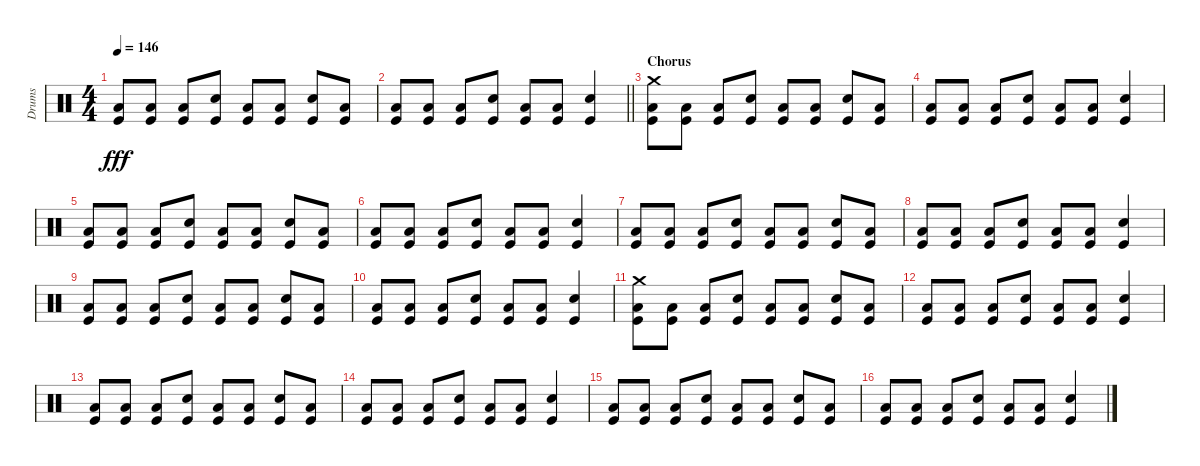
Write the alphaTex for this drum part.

\track ("Drums" "Drums") {instrument percussion}
\staff {score}
\articulation defaults
\ts (4 4)
\tempo 146
\clef neutral
\ks c
("Low Floor Tom (hit)" "Kick (hit)").8{dy fff} ("Low Floor Tom (hit)" "Kick (hit)").8 ("Low Floor Tom (hit)" "Kick (hit)").8 ("Electric Snare (hit)" "Kick (hit)").8 ("Low Floor Tom (hit)" "Kick (hit)").8 ("Low Floor Tom (hit)" "Kick (hit)").8 ("Electric Snare (hit)" "Kick (hit)").8 ("Low Floor Tom (hit)" "Kick (hit)").8 |
\barLineRight lightlight
("Low Floor Tom (hit)" "Kick (hit)").8 ("Low Floor Tom (hit)" "Kick (hit)").8 ("Low Floor Tom (hit)" "Kick (hit)").8 ("Electric Snare (hit)" "Kick (hit)").8 ("Low Floor Tom (hit)" "Kick (hit)").8 ("Low Floor Tom (hit)" "Kick (hit)").8 ("Electric Snare (hit)" "Kick (hit)").4 |
\section ("" "Chorus")
("Crash medium (hit)" "Low Floor Tom (hit)" "Kick (hit)").8 ("Low Floor Tom (hit)" "Kick (hit)").8 ("Low Floor Tom (hit)" "Kick (hit)").8 ("Electric Snare (hit)" "Kick (hit)").8 ("Low Floor Tom (hit)" "Kick (hit)").8 ("Low Floor Tom (hit)" "Kick (hit)").8 ("Electric Snare (hit)" "Kick (hit)").8 ("Low Floor Tom (hit)" "Kick (hit)").8 |
("Low Floor Tom (hit)" "Kick (hit)").8 ("Low Floor Tom (hit)" "Kick (hit)").8 ("Low Floor Tom (hit)" "Kick (hit)").8 ("Electric Snare (hit)" "Kick (hit)").8 ("Low Floor Tom (hit)" "Kick (hit)").8 ("Low Floor Tom (hit)" "Kick (hit)").8 ("Electric Snare (hit)" "Kick (hit)").4 |
("Low Floor Tom (hit)" "Kick (hit)").8 ("Low Floor Tom (hit)" "Kick (hit)").8 ("Low Floor Tom (hit)" "Kick (hit)").8 ("Electric Snare (hit)" "Kick (hit)").8 ("Low Floor Tom (hit)" "Kick (hit)").8 ("Low Floor Tom (hit)" "Kick (hit)").8 ("Electric Snare (hit)" "Kick (hit)").8 ("Low Floor Tom (hit)" "Kick (hit)").8 |
("Low Floor Tom (hit)" "Kick (hit)").8 ("Low Floor Tom (hit)" "Kick (hit)").8 ("Low Floor Tom (hit)" "Kick (hit)").8 ("Electric Snare (hit)" "Kick (hit)").8 ("Low Floor Tom (hit)" "Kick (hit)").8 ("Low Floor Tom (hit)" "Kick (hit)").8 ("Electric Snare (hit)" "Kick (hit)").4 |
("Low Floor Tom (hit)" "Kick (hit)").8 ("Low Floor Tom (hit)" "Kick (hit)").8 ("Low Floor Tom (hit)" "Kick (hit)").8 ("Electric Snare (hit)" "Kick (hit)").8 ("Low Floor Tom (hit)" "Kick (hit)").8 ("Low Floor Tom (hit)" "Kick (hit)").8 ("Electric Snare (hit)" "Kick (hit)").8 ("Low Floor Tom (hit)" "Kick (hit)").8 |
("Low Floor Tom (hit)" "Kick (hit)").8 ("Low Floor Tom (hit)" "Kick (hit)").8 ("Low Floor Tom (hit)" "Kick (hit)").8 ("Electric Snare (hit)" "Kick (hit)").8 ("Low Floor Tom (hit)" "Kick (hit)").8 ("Low Floor Tom (hit)" "Kick (hit)").8 ("Electric Snare (hit)" "Kick (hit)").4 |
("Low Floor Tom (hit)" "Kick (hit)").8 ("Low Floor Tom (hit)" "Kick (hit)").8 ("Low Floor Tom (hit)" "Kick (hit)").8 ("Electric Snare (hit)" "Kick (hit)").8 ("Low Floor Tom (hit)" "Kick (hit)").8 ("Low Floor Tom (hit)" "Kick (hit)").8 ("Electric Snare (hit)" "Kick (hit)").8 ("Low Floor Tom (hit)" "Kick (hit)").8 |
("Low Floor Tom (hit)" "Kick (hit)").8 ("Low Floor Tom (hit)" "Kick (hit)").8 ("Low Floor Tom (hit)" "Kick (hit)").8 ("Electric Snare (hit)" "Kick (hit)").8 ("Low Floor Tom (hit)" "Kick (hit)").8 ("Low Floor Tom (hit)" "Kick (hit)").8 ("Electric Snare (hit)" "Kick (hit)").4 |
("Crash medium (hit)" "Low Floor Tom (hit)" "Kick (hit)").8 ("Low Floor Tom (hit)" "Kick (hit)").8 ("Low Floor Tom (hit)" "Kick (hit)").8 ("Electric Snare (hit)" "Kick (hit)").8 ("Low Floor Tom (hit)" "Kick (hit)").8 ("Low Floor Tom (hit)" "Kick (hit)").8 ("Electric Snare (hit)" "Kick (hit)").8 ("Low Floor Tom (hit)" "Kick (hit)").8 |
("Low Floor Tom (hit)" "Kick (hit)").8 ("Low Floor Tom (hit)" "Kick (hit)").8 ("Low Floor Tom (hit)" "Kick (hit)").8 ("Electric Snare (hit)" "Kick (hit)").8 ("Low Floor Tom (hit)" "Kick (hit)").8 ("Low Floor Tom (hit)" "Kick (hit)").8 ("Electric Snare (hit)" "Kick (hit)").4 |
("Low Floor Tom (hit)" "Kick (hit)").8 ("Low Floor Tom (hit)" "Kick (hit)").8 ("Low Floor Tom (hit)" "Kick (hit)").8 ("Electric Snare (hit)" "Kick (hit)").8 ("Low Floor Tom (hit)" "Kick (hit)").8 ("Low Floor Tom (hit)" "Kick (hit)").8 ("Electric Snare (hit)" "Kick (hit)").8 ("Low Floor Tom (hit)" "Kick (hit)").8 |
("Low Floor Tom (hit)" "Kick (hit)").8 ("Low Floor Tom (hit)" "Kick (hit)").8 ("Low Floor Tom (hit)" "Kick (hit)").8 ("Electric Snare (hit)" "Kick (hit)").8 ("Low Floor Tom (hit)" "Kick (hit)").8 ("Low Floor Tom (hit)" "Kick (hit)").8 ("Electric Snare (hit)" "Kick (hit)").4 |
("Low Floor Tom (hit)" "Kick (hit)").8 ("Low Floor Tom (hit)" "Kick (hit)").8 ("Low Floor Tom (hit)" "Kick (hit)").8 ("Electric Snare (hit)" "Kick (hit)").8 ("Low Floor Tom (hit)" "Kick (hit)").8 ("Low Floor Tom (hit)" "Kick (hit)").8 ("Electric Snare (hit)" "Kick (hit)").8 ("Low Floor Tom (hit)" "Kick (hit)").8 |
("Low Floor Tom (hit)" "Kick (hit)").8 ("Low Floor Tom (hit)" "Kick (hit)").8 ("Low Floor Tom (hit)" "Kick (hit)").8 ("Electric Snare (hit)" "Kick (hit)").8 ("Low Floor Tom (hit)" "Kick (hit)").8 ("Low Floor Tom (hit)" "Kick (hit)").8 ("Electric Snare (hit)" "Kick (hit)").4
